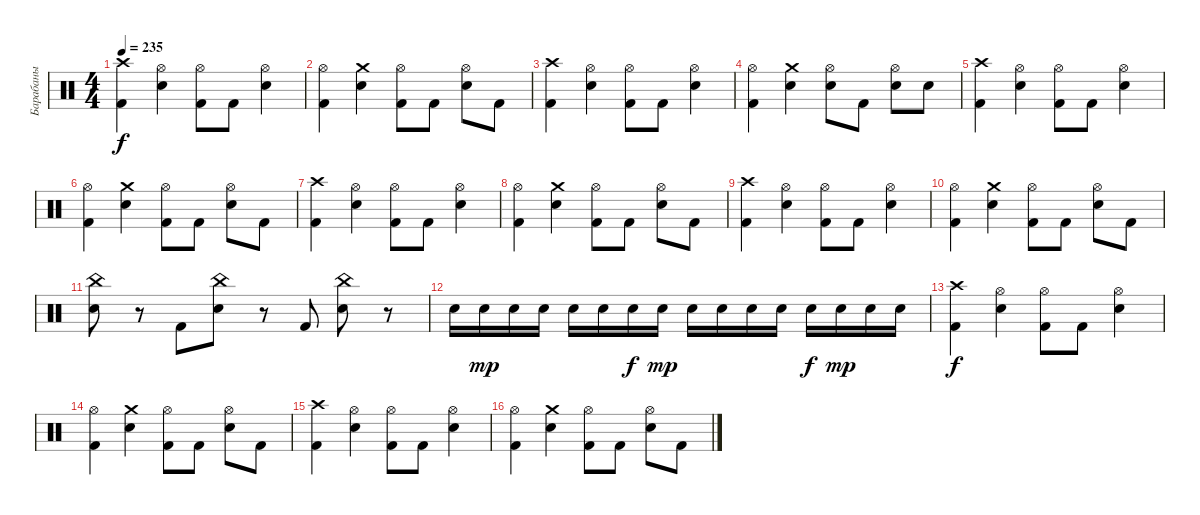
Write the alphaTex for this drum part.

\track ("Барабаны" "Барабаны") {instrument percussion}
\staff {score}
\articulation defaults
\ts (4 4)
\tempo 235
\clef neutral
\ks c
("Crash high (hit)" "Kick (hit) 2").4{dy f} ("Electric Snare (hit)" "Hi-Hat (open)").4 ("Kick (hit) 2" "Hi-Hat (open)").8 "Kick (hit) 2".8 ("Hi-Hat (open)" "Electric Snare (hit)").4 |
("Hi-Hat (open)" "Kick (hit) 2").4 ("Crash medium (hit)" "Electric Snare (hit)").4 ("Hi-Hat (open)" "Kick (hit) 2").8 "Kick (hit) 2".8 ("Hi-Hat (open)" "Electric Snare (hit)").8 "Kick (hit) 2".8 |
("Crash high (hit)" "Kick (hit) 2").4 ("Electric Snare (hit)" "Hi-Hat (open)").4 ("Kick (hit) 2" "Hi-Hat (open)").8 "Kick (hit) 2".8 ("Hi-Hat (open)" "Electric Snare (hit)").4 |
("Hi-Hat (open)" "Kick (hit) 2").4 ("Crash medium (hit)" "Electric Snare (hit)").4 ("Hi-Hat (open)" "Electric Snare (hit)").8 "Kick (hit) 2".8 ("Hi-Hat (open)" "Electric Snare (hit)").8 "Electric Snare (hit)".8 |
("Crash high (hit)" "Kick (hit) 2").4 ("Electric Snare (hit)" "Hi-Hat (open)").4 ("Kick (hit) 2" "Hi-Hat (open)").8 "Kick (hit) 2".8 ("Hi-Hat (open)" "Electric Snare (hit)").4 |
("Hi-Hat (open)" "Kick (hit) 2").4 ("Crash medium (hit)" "Electric Snare (hit)").4 ("Hi-Hat (open)" "Kick (hit) 2").8 "Kick (hit) 2".8 ("Hi-Hat (open)" "Electric Snare (hit)").8 "Kick (hit) 2".8 |
("Crash high (hit)" "Kick (hit) 2").4 ("Electric Snare (hit)" "Hi-Hat (open)").4 ("Kick (hit) 2" "Hi-Hat (open)").8 "Kick (hit) 2".8 ("Hi-Hat (open)" "Electric Snare (hit)").4 |
("Hi-Hat (open)" "Kick (hit) 2").4 ("Crash medium (hit)" "Electric Snare (hit)").4 ("Hi-Hat (open)" "Kick (hit) 2").8 "Kick (hit) 2".8 ("Hi-Hat (open)" "Electric Snare (hit)").8 "Kick (hit) 2".8 |
("Crash high (hit)" "Kick (hit) 2").4 ("Electric Snare (hit)" "Hi-Hat (open)").4 ("Kick (hit) 2" "Hi-Hat (open)").8 "Kick (hit) 2".8 ("Hi-Hat (open)" "Electric Snare (hit)").4 |
("Hi-Hat (open)" "Kick (hit) 2").4 ("Crash medium (hit)" "Electric Snare (hit)").4 ("Hi-Hat (open)" "Kick (hit) 2").8 "Kick (hit) 2".8 ("Hi-Hat (open)" "Electric Snare (hit)").8 "Kick (hit) 2".8 |
("China (hit)" "Electric Snare (hit)").8 r.8 "Kick (hit) 2".8 ("China (hit)" "Electric Snare (hit)").8 r.8 "Kick (hit) 2".8 ("China (hit)" "Electric Snare (hit)").8 r.8 |
"Electric Snare (hit)".16 "Electric Snare (hit)".16{dy mp} "Electric Snare (hit)".16 "Electric Snare (hit)".16 "Electric Snare (hit)".16 "Electric Snare (hit)".16 "Electric Snare (hit)".16{dy f} "Electric Snare (hit)".16{dy mp} "Electric Snare (hit)".16 "Electric Snare (hit)".16 "Electric Snare (hit)".16 "Electric Snare (hit)".16 "Electric Snare (hit)".16{dy f} "Electric Snare (hit)".16{dy mp} "Electric Snare (hit)".16 "Electric Snare (hit)".16 |
("Crash high (hit)" "Kick (hit) 2").4{dy f} ("Electric Snare (hit)" "Hi-Hat (open)").4 ("Hi-Hat (open)" "Kick (hit) 2").8 "Kick (hit) 2".8 ("Hi-Hat (open)" "Electric Snare (hit)").4 |
("Kick (hit) 2" "Hi-Hat (open)").4 ("Crash medium (hit)" "Electric Snare (hit)").4 ("Hi-Hat (open)" "Kick (hit) 2").8 "Kick (hit) 2".8 ("Hi-Hat (open)" "Electric Snare (hit)").8 "Kick (hit) 2".8 |
("Kick (hit) 2" "Crash high (hit)").4 ("Electric Snare (hit)" "Hi-Hat (open)").4 ("Hi-Hat (open)" "Kick (hit) 2").8 "Kick (hit) 2".8 ("Hi-Hat (open)" "Electric Snare (hit)").4 |
("Hi-Hat (open)" "Kick (hit) 2").4 ("Crash medium (hit)" "Electric Snare (hit)").4 ("Kick (hit) 2" "Hi-Hat (open)").8 "Kick (hit) 2".8 ("Hi-Hat (open)" "Electric Snare (hit)").8 "Kick (hit) 2".8
